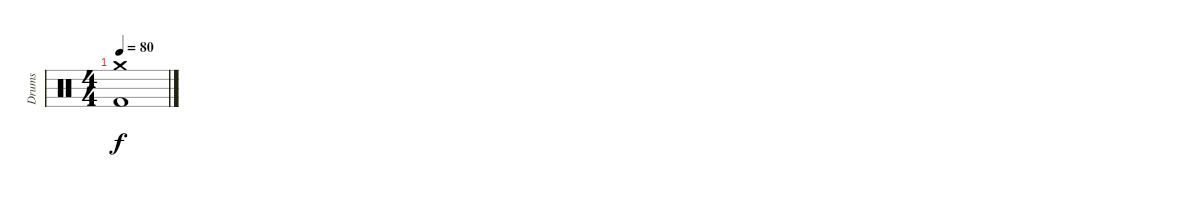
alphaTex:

\track ("Drums" "Drums") {instrument percussion}
\staff {score}
\articulation defaults
\ts (4 4)
\tempo 80
\clef neutral
\ks c
("Crash medium (hit)" "Kick (hit) 2").1{dy f}
